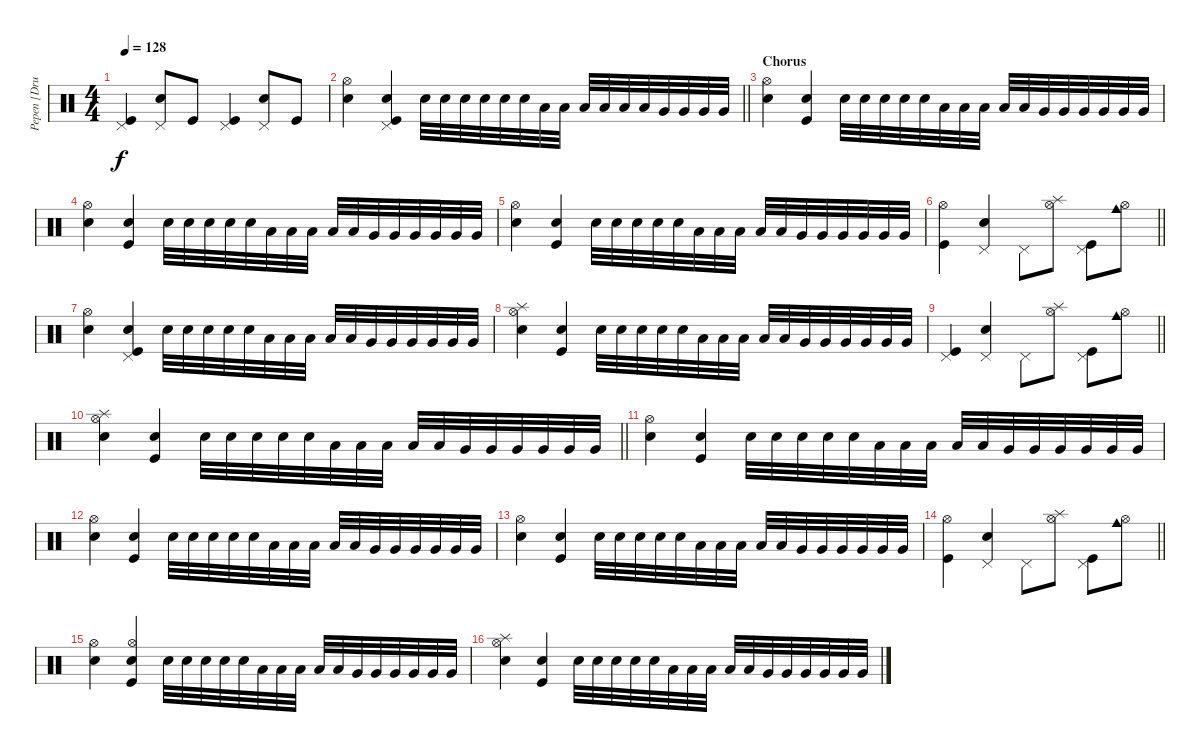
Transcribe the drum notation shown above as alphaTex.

\track ("Pepen [Drum]" "Pepen [Dru") {instrument percussion}
\staff {score}
\articulation defaults
\ts (4 4)
\tempo 128
\clef neutral
\ks c
("Pedal Hi-Hat (hit)" "Kick (hit)").4{dy f} ("Pedal Hi-Hat (hit)" "Electric Snare (hit)").8 "Kick (hit)".8 ("Pedal Hi-Hat (hit)" "Kick (hit)").4 ("Pedal Hi-Hat (hit)" "Electric Snare (hit)").8 "Kick (hit)".8 |
\barLineRight lightlight
("Hi-Hat (open)" "Electric Snare (hit)").4 ("Pedal Hi-Hat (hit)" "Kick (hit)" "Snare (hit) 2").4 "Electric Snare (hit)".32 "Electric Snare (hit)".32 "Electric Snare (hit)".32 "Electric Snare (hit)".32 "Electric Snare (hit)".32 "Electric Snare (hit)".32 "Low Floor Tom (hit)".32 "Low Floor Tom (hit)".32 "Low Floor Tom (hit)".32 "Low Floor Tom (hit)".32 "Low Floor Tom (hit)".32 "Low Floor Tom (hit)".32 "Very Low Tom (hit)".32 "Very Low Tom (hit)".32 "Very Low Tom (hit)".32 "Very Low Tom (hit)".32 |
\section ("" "Chorus")
("Hi-Hat (open)" "Electric Snare (hit)").4 ("Kick (hit)" "Snare (hit) 2").4 "Electric Snare (hit)".32 "Electric Snare (hit)".32 "Electric Snare (hit)".32 "Electric Snare (hit)".32 "Electric Snare (hit)".32 "Low Floor Tom (hit)".32 "Low Floor Tom (hit)".32 "Low Floor Tom (hit)".32 "Low Floor Tom (hit)".32 "Low Floor Tom (hit)".32 "Very Low Tom (hit)".32 "Very Low Tom (hit)".32 "Very Low Tom (hit)".32 "Very Low Tom (hit)".32 "Very Low Tom (hit)".32 "Very Low Tom (hit)".32 |
("Hi-Hat (open)" "Electric Snare (hit)").4 ("Kick (hit)" "Snare (hit) 2").4 "Electric Snare (hit)".32 "Electric Snare (hit)".32 "Electric Snare (hit)".32 "Electric Snare (hit)".32 "Electric Snare (hit)".32 "Low Floor Tom (hit)".32 "Low Floor Tom (hit)".32 "Low Floor Tom (hit)".32 "Low Floor Tom (hit)".32 "Low Floor Tom (hit)".32 "Very Low Tom (hit)".32 "Very Low Tom (hit)".32 "Very Low Tom (hit)".32 "Very Low Tom (hit)".32 "Very Low Tom (hit)".32 "Very Low Tom (hit)".32 |
("Hi-Hat (open)" "Electric Snare (hit)").4 ("Kick (hit)" "Snare (hit) 2").4 "Electric Snare (hit)".32 "Electric Snare (hit)".32 "Electric Snare (hit)".32 "Electric Snare (hit)".32 "Electric Snare (hit)".32 "Low Floor Tom (hit)".32 "Low Floor Tom (hit)".32 "Low Floor Tom (hit)".32 "Low Floor Tom (hit)".32 "Low Floor Tom (hit)".32 "Very Low Tom (hit)".32 "Very Low Tom (hit)".32 "Very Low Tom (hit)".32 "Very Low Tom (hit)".32 "Very Low Tom (hit)".32 "Very Low Tom (hit)".32 |
\barLineRight lightlight
("Hi-Hat (open)" "Kick (hit)").4 ("Pedal Hi-Hat (hit)" "Electric Snare (hit)").4 "Pedal Hi-Hat (hit)".8 ("Hi-Hat (open)" "Splash (hit)").8 ("Pedal Hi-Hat (hit)" "Kick (hit)").8 ("Hi-Hat (open)" "Cowbell medium (hit)").8 |
("Hi-Hat (open)" "Electric Snare (hit)").4 ("Pedal Hi-Hat (hit)" "Kick (hit)" "Snare (hit) 2").4 "Electric Snare (hit)".32 "Electric Snare (hit)".32 "Electric Snare (hit)".32 "Electric Snare (hit)".32 "Electric Snare (hit)".32 "Low Floor Tom (hit)".32 "Low Floor Tom (hit)".32 "Low Floor Tom (hit)".32 "Low Floor Tom (hit)".32 "Low Floor Tom (hit)".32 "Very Low Tom (hit)".32 "Very Low Tom (hit)".32 "Very Low Tom (hit)".32 "Very Low Tom (hit)".32 "Very Low Tom (hit)".32 "Very Low Tom (hit)".32 |
("Hi-Hat (open)" "Splash (hit)" "Electric Snare (hit)").4 ("Kick (hit)" "Snare (hit) 2").4 "Electric Snare (hit)".32 "Electric Snare (hit)".32 "Electric Snare (hit)".32 "Electric Snare (hit)".32 "Electric Snare (hit)".32 "Low Floor Tom (hit)".32 "Low Floor Tom (hit)".32 "Low Floor Tom (hit)".32 "Low Floor Tom (hit)".32 "Low Floor Tom (hit)".32 "Very Low Tom (hit)".32 "Very Low Tom (hit)".32 "Very Low Tom (hit)".32 "Very Low Tom (hit)".32 "Very Low Tom (hit)".32 "Very Low Tom (hit)".32 |
\barLineRight lightlight
("Pedal Hi-Hat (hit)" "Kick (hit)").4 ("Pedal Hi-Hat (hit)" "Electric Snare (hit)").4 "Pedal Hi-Hat (hit)".8 ("Hi-Hat (open)" "Splash (hit)").8 ("Pedal Hi-Hat (hit)" "Kick (hit)").8 ("Hi-Hat (open)" "Cowbell medium (hit)").8 |
\barLineRight lightlight
("Hi-Hat (open)" "Splash (hit)" "Electric Snare (hit)").4 ("Kick (hit)" "Snare (hit) 2").4 "Electric Snare (hit)".32 "Electric Snare (hit)".32 "Electric Snare (hit)".32 "Electric Snare (hit)".32 "Electric Snare (hit)".32 "Low Floor Tom (hit)".32 "Low Floor Tom (hit)".32 "Low Floor Tom (hit)".32 "Low Floor Tom (hit)".32 "Low Floor Tom (hit)".32 "Very Low Tom (hit)".32 "Very Low Tom (hit)".32 "Very Low Tom (hit)".32 "Very Low Tom (hit)".32 "Very Low Tom (hit)".32 "Very Low Tom (hit)".32 |
("Hi-Hat (open)" "Electric Snare (hit)").4 ("Kick (hit)" "Snare (hit) 2").4 "Electric Snare (hit)".32 "Electric Snare (hit)".32 "Electric Snare (hit)".32 "Electric Snare (hit)".32 "Electric Snare (hit)".32 "Low Floor Tom (hit)".32 "Low Floor Tom (hit)".32 "Low Floor Tom (hit)".32 "Low Floor Tom (hit)".32 "Low Floor Tom (hit)".32 "Very Low Tom (hit)".32 "Very Low Tom (hit)".32 "Very Low Tom (hit)".32 "Very Low Tom (hit)".32 "Very Low Tom (hit)".32 "Very Low Tom (hit)".32 |
("Hi-Hat (open)" "Electric Snare (hit)").4 ("Kick (hit)" "Snare (hit) 2").4 "Electric Snare (hit)".32 "Electric Snare (hit)".32 "Electric Snare (hit)".32 "Electric Snare (hit)".32 "Electric Snare (hit)".32 "Low Floor Tom (hit)".32 "Low Floor Tom (hit)".32 "Low Floor Tom (hit)".32 "Low Floor Tom (hit)".32 "Low Floor Tom (hit)".32 "Very Low Tom (hit)".32 "Very Low Tom (hit)".32 "Very Low Tom (hit)".32 "Very Low Tom (hit)".32 "Very Low Tom (hit)".32 "Very Low Tom (hit)".32 |
("Hi-Hat (open)" "Electric Snare (hit)").4 ("Kick (hit)" "Snare (hit) 2").4 "Electric Snare (hit)".32 "Electric Snare (hit)".32 "Electric Snare (hit)".32 "Electric Snare (hit)".32 "Electric Snare (hit)".32 "Low Floor Tom (hit)".32 "Low Floor Tom (hit)".32 "Low Floor Tom (hit)".32 "Low Floor Tom (hit)".32 "Low Floor Tom (hit)".32 "Very Low Tom (hit)".32 "Very Low Tom (hit)".32 "Very Low Tom (hit)".32 "Very Low Tom (hit)".32 "Very Low Tom (hit)".32 "Very Low Tom (hit)".32 |
\barLineRight lightlight
("Hi-Hat (open)" "Kick (hit)").4 ("Pedal Hi-Hat (hit)" "Electric Snare (hit)").4 "Pedal Hi-Hat (hit)".8 ("Hi-Hat (open)" "Splash (hit)").8 ("Pedal Hi-Hat (hit)" "Kick (hit)").8 ("Hi-Hat (open)" "Cowbell medium (hit)").8 |
("Hi-Hat (open)" "Electric Snare (hit)").4 ("Hi-Hat (open)" "Kick (hit)" "Snare (hit) 2").4 "Electric Snare (hit)".32 "Electric Snare (hit)".32 "Electric Snare (hit)".32 "Electric Snare (hit)".32 "Electric Snare (hit)".32 "Low Floor Tom (hit)".32 "Low Floor Tom (hit)".32 "Low Floor Tom (hit)".32 "Low Floor Tom (hit)".32 "Low Floor Tom (hit)".32 "Very Low Tom (hit)".32 "Very Low Tom (hit)".32 "Very Low Tom (hit)".32 "Very Low Tom (hit)".32 "Very Low Tom (hit)".32 "Very Low Tom (hit)".32 |
("Hi-Hat (open)" "Splash (hit)" "Electric Snare (hit)").4 ("Kick (hit)" "Snare (hit) 2").4 "Electric Snare (hit)".32 "Electric Snare (hit)".32 "Electric Snare (hit)".32 "Electric Snare (hit)".32 "Electric Snare (hit)".32 "Low Floor Tom (hit)".32 "Low Floor Tom (hit)".32 "Low Floor Tom (hit)".32 "Low Floor Tom (hit)".32 "Low Floor Tom (hit)".32 "Very Low Tom (hit)".32 "Very Low Tom (hit)".32 "Very Low Tom (hit)".32 "Very Low Tom (hit)".32 "Very Low Tom (hit)".32 "Very Low Tom (hit)".32
